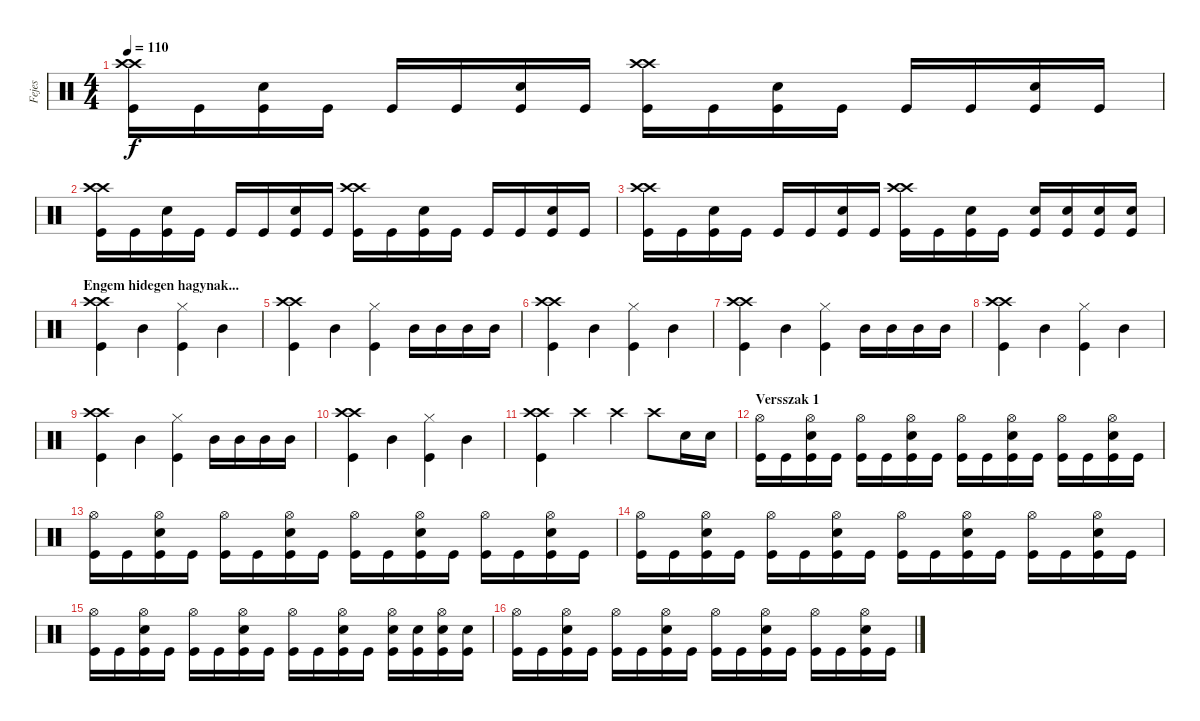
\track ("Fejes" "Fejes") {instrument percussion}
\staff {score}
\articulation defaults
\ts (4 4)
\tempo 110
\clef neutral
\ks c
("Crash high (hit)" "Crash high (hit)" "Kick (hit)").16{dy f} "Kick (hit)".16 ("Snare (hit) 2" "Kick (hit)").16 "Kick (hit)".16 "Kick (hit)".16 "Kick (hit)".16 ("Snare (hit) 2" "Kick (hit)").16 "Kick (hit)".16 ("Crash high (hit)" "Crash high (hit)" "Kick (hit)").16 "Kick (hit)".16 ("Snare (hit) 2" "Kick (hit)").16 "Kick (hit)".16 "Kick (hit)".16 "Kick (hit)".16 ("Snare (hit) 2" "Kick (hit)").16 "Kick (hit)".16 |
("Crash high (hit)" "Crash high (hit)" "Kick (hit)").16 "Kick (hit)".16 ("Snare (hit) 2" "Kick (hit)").16 "Kick (hit)".16 "Kick (hit)".16 "Kick (hit)".16 ("Snare (hit) 2" "Kick (hit)").16 "Kick (hit)".16 ("Crash high (hit)" "Crash high (hit)" "Kick (hit)").16 "Kick (hit)".16 ("Snare (hit) 2" "Kick (hit)").16 "Kick (hit)".16 "Kick (hit)".16 "Kick (hit)".16 ("Snare (hit) 2" "Kick (hit)").16 "Kick (hit)".16 |
("Crash high (hit)" "Crash high (hit)" "Kick (hit)").16 "Kick (hit)".16 ("Snare (hit) 2" "Kick (hit)").16 "Kick (hit)".16 "Kick (hit)".16 "Kick (hit)".16 ("Snare (hit) 2" "Kick (hit)").16 "Kick (hit)".16 ("Crash high (hit)" "Crash high (hit)" "Kick (hit)").16 "Kick (hit)".16 ("Snare (hit) 2" "Kick (hit)").16 "Kick (hit)".16 ("Snare (hit) 2" "Kick (hit)").16 ("Snare (hit) 2" "Kick (hit)").16 ("Snare (hit) 2" "Kick (hit)").16 ("Snare (hit) 2" "Kick (hit)").16 |
\section ("" "Engem hidegen hagynak...")
("Crash high (hit)" "Crash high (hit)" "Kick (hit)").4 "Mid Tom (hit)".4 ("Hi-Hat (closed)" "Kick (hit)").4 "Mid Tom (hit)".4 |
("Crash high (hit)" "Crash high (hit)" "Kick (hit)").4 "Mid Tom (hit)".4 ("Hi-Hat (closed)" "Kick (hit)").4 "Mid Tom (hit)".16 "Mid Tom (hit)".16 "Mid Tom (hit)".16 "Mid Tom (hit)".16 |
("Crash high (hit)" "Crash high (hit)" "Kick (hit)").4 "Mid Tom (hit)".4 ("Hi-Hat (closed)" "Kick (hit)").4 "Mid Tom (hit)".4 |
("Crash high (hit)" "Crash high (hit)" "Kick (hit)").4 "Mid Tom (hit)".4 ("Hi-Hat (closed)" "Kick (hit)").4 "Mid Tom (hit)".16 "Mid Tom (hit)".16 "Mid Tom (hit)".16 "Mid Tom (hit)".16 |
("Crash high (hit)" "Crash high (hit)" "Kick (hit)").4 "Mid Tom (hit)".4 ("Hi-Hat (closed)" "Kick (hit)").4 "Mid Tom (hit)".4 |
("Crash high (hit)" "Crash high (hit)" "Kick (hit)").4 "Mid Tom (hit)".4 ("Hi-Hat (closed)" "Kick (hit)").4 "Mid Tom (hit)".16 "Mid Tom (hit)".16 "Mid Tom (hit)".16 "Mid Tom (hit)".16 |
("Crash high (hit)" "Crash high (hit)" "Kick (hit)").4 "Mid Tom (hit)".4 ("Hi-Hat (closed)" "Kick (hit)").4 "Mid Tom (hit)".4 |
("Crash high (hit)" "Crash high (hit)" "Kick (hit)").4 "Crash high (hit)".4 "Crash high (hit)".4 "Crash high (hit)".8 "Snare (hit) 2".16 "Snare (hit) 2".16 |
\section ("" "Versszak 1")
("Hi-Hat (open)" "Kick (hit)").16 "Kick (hit)".16 ("Hi-Hat (open)" "Snare (hit) 2" "Kick (hit)").16 "Kick (hit)".16 ("Hi-Hat (open)" "Kick (hit)").16 "Kick (hit)".16 ("Hi-Hat (open)" "Snare (hit) 2" "Kick (hit)").16 "Kick (hit)".16 ("Hi-Hat (open)" "Kick (hit)").16 "Kick (hit)".16 ("Hi-Hat (open)" "Snare (hit) 2" "Kick (hit)").16 "Kick (hit)".16 ("Hi-Hat (open)" "Kick (hit)").16 "Kick (hit)".16 ("Hi-Hat (open)" "Snare (hit) 2" "Kick (hit)").16 "Kick (hit)".16 |
("Hi-Hat (open)" "Kick (hit)").16 "Kick (hit)".16 ("Hi-Hat (open)" "Snare (hit) 2" "Kick (hit)").16 "Kick (hit)".16 ("Hi-Hat (open)" "Kick (hit)").16 "Kick (hit)".16 ("Hi-Hat (open)" "Snare (hit) 2" "Kick (hit)").16 "Kick (hit)".16 ("Hi-Hat (open)" "Kick (hit)").16 "Kick (hit)".16 ("Hi-Hat (open)" "Snare (hit) 2" "Kick (hit)").16 "Kick (hit)".16 ("Hi-Hat (open)" "Kick (hit)").16 "Kick (hit)".16 ("Hi-Hat (open)" "Snare (hit) 2" "Kick (hit)").16 "Kick (hit)".16 |
("Hi-Hat (open)" "Kick (hit)").16 "Kick (hit)".16 ("Hi-Hat (open)" "Snare (hit) 2" "Kick (hit)").16 "Kick (hit)".16 ("Hi-Hat (open)" "Kick (hit)").16 "Kick (hit)".16 ("Hi-Hat (open)" "Snare (hit) 2" "Kick (hit)").16 "Kick (hit)".16 ("Hi-Hat (open)" "Kick (hit)").16 "Kick (hit)".16 ("Hi-Hat (open)" "Snare (hit) 2" "Kick (hit)").16 "Kick (hit)".16 ("Hi-Hat (open)" "Kick (hit)").16 "Kick (hit)".16 ("Hi-Hat (open)" "Snare (hit) 2" "Kick (hit)").16 "Kick (hit)".16 |
("Hi-Hat (open)" "Kick (hit)").16 "Kick (hit)".16 ("Hi-Hat (open)" "Snare (hit) 2" "Kick (hit)").16 "Kick (hit)".16 ("Hi-Hat (open)" "Kick (hit)").16 "Kick (hit)".16 ("Hi-Hat (open)" "Snare (hit) 2" "Kick (hit)").16 "Kick (hit)".16 ("Hi-Hat (open)" "Kick (hit)").16 "Kick (hit)".16 ("Hi-Hat (open)" "Snare (hit) 2" "Kick (hit)").16 "Kick (hit)".16 ("Hi-Hat (open)" "Snare (hit) 2" "Kick (hit)").16 ("Snare (hit) 2" "Kick (hit)").16 ("Hi-Hat (open)" "Snare (hit) 2" "Kick (hit)").16 ("Snare (hit) 2" "Kick (hit)").16 |
("Hi-Hat (open)" "Kick (hit)").16 "Kick (hit)".16 ("Hi-Hat (open)" "Snare (hit) 2" "Kick (hit)").16 "Kick (hit)".16 ("Hi-Hat (open)" "Kick (hit)").16 "Kick (hit)".16 ("Hi-Hat (open)" "Snare (hit) 2" "Kick (hit)").16 "Kick (hit)".16 ("Hi-Hat (open)" "Kick (hit)").16 "Kick (hit)".16 ("Hi-Hat (open)" "Snare (hit) 2" "Kick (hit)").16 "Kick (hit)".16 ("Hi-Hat (open)" "Kick (hit)").16 "Kick (hit)".16 ("Hi-Hat (open)" "Snare (hit) 2" "Kick (hit)").16 "Kick (hit)".16
